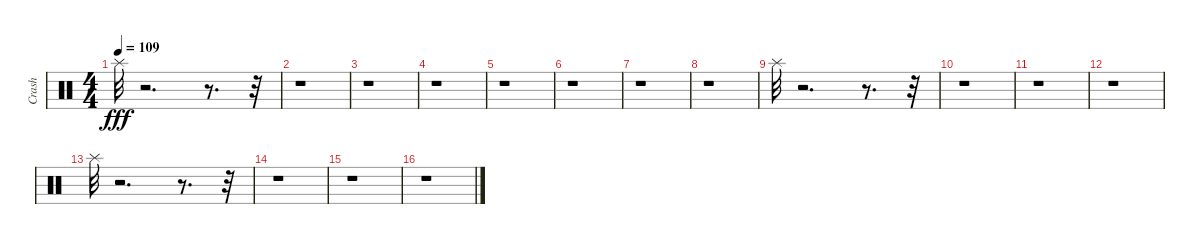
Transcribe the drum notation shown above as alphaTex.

\track ("Crash" "Crash") {instrument percussion}
\staff {score}
\articulation defaults
\ts (4 4)
\tempo 109
\clef neutral
\ks c "Splash (hit)".32{dy fff}
r.2{d} r.8{d} r.32 |
r.1 |
r.1 |
r.1 |
r.1 |
r.1 |
r.1 |
r.1 |
"Splash (hit)".32 r.2{d} r.8{d} r.32 |
r.1 |
r.1 |
r.1 |
"Splash (hit)".32 r.2{d} r.8{d} r.32 |
r.1 |
r.1 |
r.1
